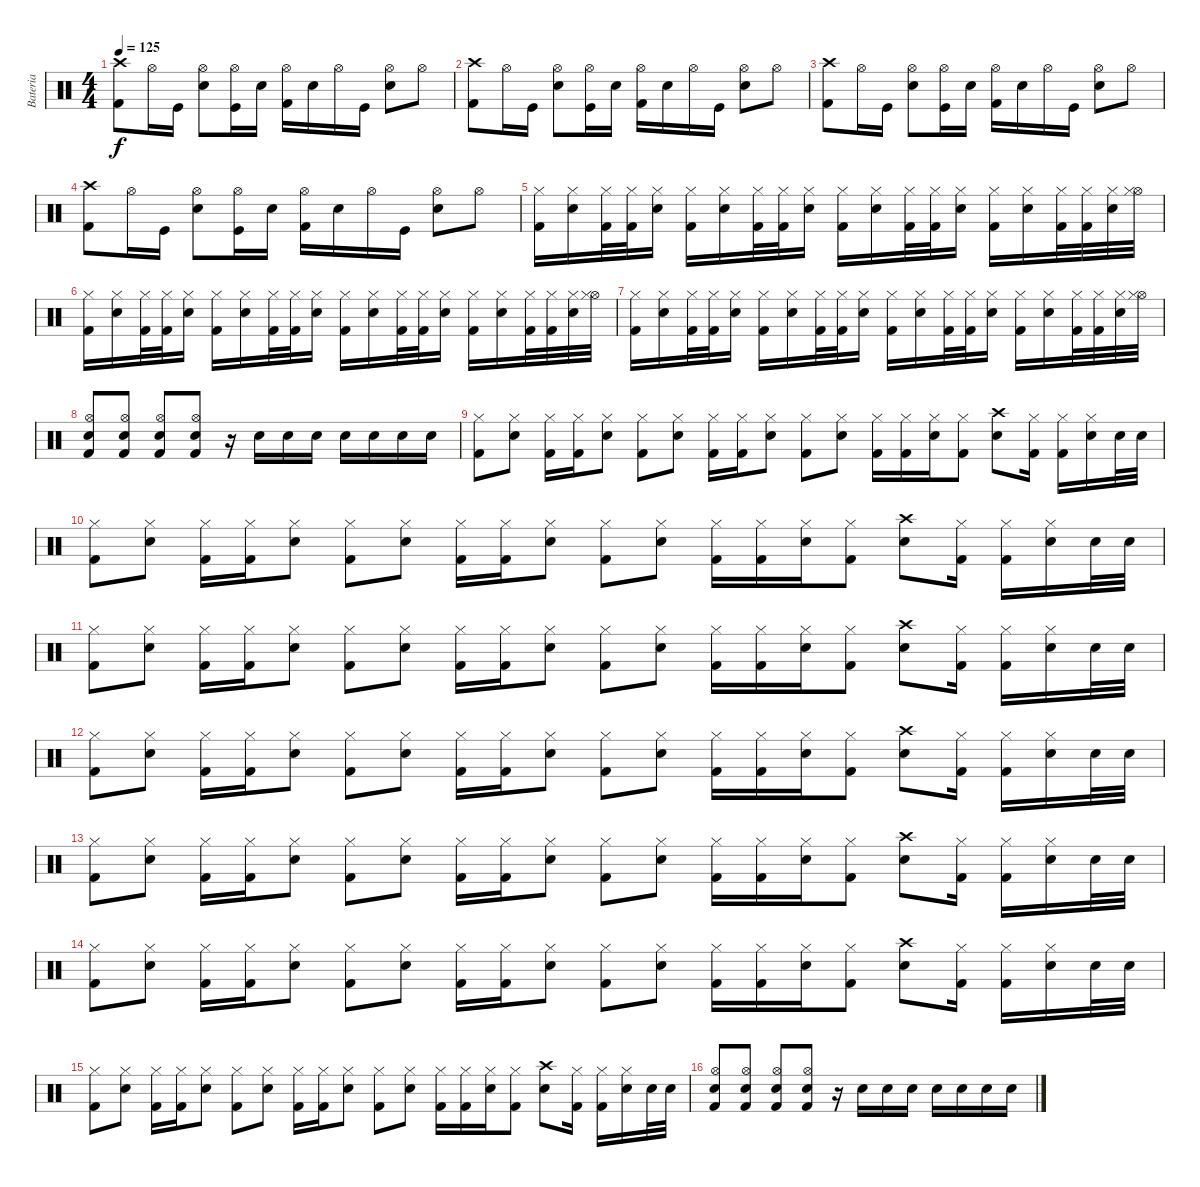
\track ("Bateria" "Bateria") {instrument percussion}
\staff {score}
\articulation defaults
\ts (4 4)
\tempo 125
\clef neutral
\ks c
("Crash high (hit)" "Kick (hit) 2").8{dy f} "Hi-Hat (open)".16 "Kick (hit)".16 ("Hi-Hat (open)" "Electric Snare (hit)").8 ("Hi-Hat (open)" "Kick (hit)").16 "Electric Snare (hit)".16 ("Kick (hit) 2" "Hi-Hat (open)").16 "Electric Snare (hit)".16 "Hi-Hat (open)".16 "Kick (hit)".16 ("Hi-Hat (open)" "Electric Snare (hit)").8 "Hi-Hat (open)".8 |
("Crash high (hit)" "Kick (hit) 2").8 "Hi-Hat (open)".16 "Kick (hit)".16 ("Hi-Hat (open)" "Electric Snare (hit)").8 ("Hi-Hat (open)" "Kick (hit)").16 "Electric Snare (hit)".16 ("Kick (hit) 2" "Hi-Hat (open)").16 "Electric Snare (hit)".16 "Hi-Hat (open)".16 "Kick (hit)".16 ("Hi-Hat (open)" "Electric Snare (hit)").8 "Hi-Hat (open)".8 |
("Crash high (hit)" "Kick (hit) 2").8 "Hi-Hat (open)".16 "Kick (hit)".16 ("Hi-Hat (open)" "Electric Snare (hit)").8 ("Hi-Hat (open)" "Kick (hit)").16 "Electric Snare (hit)".16 ("Kick (hit) 2" "Hi-Hat (open)").16 "Electric Snare (hit)".16 "Hi-Hat (open)".16 "Kick (hit)".16 ("Hi-Hat (open)" "Electric Snare (hit)").8 "Hi-Hat (open)".8 |
("Crash high (hit)" "Kick (hit) 2").8 "Hi-Hat (open)".16 "Kick (hit)".16 ("Hi-Hat (open)" "Electric Snare (hit)").8 ("Hi-Hat (open)" "Kick (hit)").16 "Electric Snare (hit)".16 ("Kick (hit) 2" "Hi-Hat (open)").16 "Electric Snare (hit)".16 "Hi-Hat (open)".16 "Kick (hit)".16 ("Hi-Hat (open)" "Electric Snare (hit)").8 "Hi-Hat (open)".8 |
("Kick (hit) 2" "Hi-Hat (closed)").16 ("Snare (hit) 2" "Hi-Hat (closed)").16 ("Kick (hit) 2" "Hi-Hat (closed)").32 ("Kick (hit) 2" "Hi-Hat (closed)").32 ("Snare (hit) 2" "Hi-Hat (closed)").16 ("Kick (hit) 2" "Hi-Hat (closed)").16 ("Snare (hit) 2" "Hi-Hat (closed)").16 ("Kick (hit) 2" "Hi-Hat (closed)").32 ("Kick (hit) 2" "Hi-Hat (closed)").32 ("Snare (hit) 2" "Hi-Hat (closed)").16 ("Kick (hit) 2" "Hi-Hat (closed)").16 ("Snare (hit) 2" "Hi-Hat (closed)").16 ("Kick (hit) 2" "Hi-Hat (closed)").32 ("Kick (hit) 2" "Hi-Hat (closed)").32 ("Snare (hit) 2" "Hi-Hat (closed)").16 ("Kick (hit) 2" "Hi-Hat (closed)").16 ("Snare (hit) 2" "Hi-Hat (closed)").16 ("Kick (hit) 2" "Hi-Hat (closed)").32 ("Kick (hit) 2" "Hi-Hat (closed)").32 ("Snare (hit) 2" "Hi-Hat (closed)").32 ("Hi-Hat (open)" "Hi-Hat (closed)").32 |
("Kick (hit) 2" "Hi-Hat (closed)").16 ("Snare (hit) 2" "Hi-Hat (closed)").16 ("Kick (hit) 2" "Hi-Hat (closed)").32 ("Kick (hit) 2" "Hi-Hat (closed)").32 ("Snare (hit) 2" "Hi-Hat (closed)").16 ("Kick (hit) 2" "Hi-Hat (closed)").16 ("Snare (hit) 2" "Hi-Hat (closed)").16 ("Kick (hit) 2" "Hi-Hat (closed)").32 ("Kick (hit) 2" "Hi-Hat (closed)").32 ("Snare (hit) 2" "Hi-Hat (closed)").16 ("Kick (hit) 2" "Hi-Hat (closed)").16 ("Snare (hit) 2" "Hi-Hat (closed)").16 ("Kick (hit) 2" "Hi-Hat (closed)").32 ("Kick (hit) 2" "Hi-Hat (closed)").32 ("Snare (hit) 2" "Hi-Hat (closed)").16 ("Kick (hit) 2" "Hi-Hat (closed)").16 ("Snare (hit) 2" "Hi-Hat (closed)").16 ("Kick (hit) 2" "Hi-Hat (closed)").32 ("Kick (hit) 2" "Hi-Hat (closed)").32 ("Snare (hit) 2" "Hi-Hat (closed)").32 ("Hi-Hat (open)" "Hi-Hat (closed)").32 |
("Kick (hit) 2" "Hi-Hat (closed)").16 ("Snare (hit) 2" "Hi-Hat (closed)").16 ("Kick (hit) 2" "Hi-Hat (closed)").32 ("Kick (hit) 2" "Hi-Hat (closed)").32 ("Snare (hit) 2" "Hi-Hat (closed)").16 ("Kick (hit) 2" "Hi-Hat (closed)").16 ("Snare (hit) 2" "Hi-Hat (closed)").16 ("Kick (hit) 2" "Hi-Hat (closed)").32 ("Kick (hit) 2" "Hi-Hat (closed)").32 ("Snare (hit) 2" "Hi-Hat (closed)").16 ("Kick (hit) 2" "Hi-Hat (closed)").16 ("Snare (hit) 2" "Hi-Hat (closed)").16 ("Kick (hit) 2" "Hi-Hat (closed)").32 ("Kick (hit) 2" "Hi-Hat (closed)").32 ("Snare (hit) 2" "Hi-Hat (closed)").16 ("Kick (hit) 2" "Hi-Hat (closed)").16 ("Snare (hit) 2" "Hi-Hat (closed)").16 ("Kick (hit) 2" "Hi-Hat (closed)").32 ("Kick (hit) 2" "Hi-Hat (closed)").32 ("Snare (hit) 2" "Hi-Hat (closed)").32 ("Hi-Hat (open)" "Hi-Hat (closed)").32 |
("Kick (hit) 2" "Snare (hit) 2" "Hi-Hat (open)").8 ("Kick (hit) 2" "Snare (hit) 2" "Hi-Hat (open)").8 ("Kick (hit) 2" "Snare (hit) 2" "Hi-Hat (open)").8 ("Kick (hit) 2" "Snare (hit) 2" "Hi-Hat (open)").8 r.16 "Snare (hit) 2".16 "Snare (hit) 2".16 "Snare (hit) 2".16 "Snare (hit) 2".16 "Snare (hit) 2".16 "Snare (hit) 2".16 "Snare (hit) 2".16 |
("Kick (hit) 2" "Hi-Hat (closed)").8 ("Snare (hit) 2" "Hi-Hat (closed)").8 ("Kick (hit) 2" "Hi-Hat (closed)").16 ("Kick (hit) 2" "Hi-Hat (closed)").16 ("Snare (hit) 2" "Hi-Hat (closed)").8 ("Kick (hit) 2" "Hi-Hat (closed)").8 ("Snare (hit) 2" "Hi-Hat (closed)").8 ("Kick (hit) 2" "Hi-Hat (closed)").16 ("Kick (hit) 2" "Hi-Hat (closed)").16 ("Snare (hit) 2" "Hi-Hat (closed)").8 ("Kick (hit) 2" "Hi-Hat (closed)").8 ("Snare (hit) 2" "Hi-Hat (closed)").8 ("Kick (hit) 2" "Hi-Hat (closed)").16 ("Kick (hit) 2" "Hi-Hat (closed)").16 ("Snare (hit) 2" "Hi-Hat (closed)").16 ("Kick (hit) 2" "Hi-Hat (closed)").8 ("Snare (hit) 2" "Crash high (hit)").8 ("Kick (hit) 2" "Hi-Hat (closed)").16 ("Kick (hit) 2" "Hi-Hat (closed)").16 ("Snare (hit) 2" "Hi-Hat (closed)").16 "Snare (hit) 2".32 "Snare (hit) 2".32 |
("Kick (hit) 2" "Hi-Hat (closed)").8 ("Snare (hit) 2" "Hi-Hat (closed)").8 ("Kick (hit) 2" "Hi-Hat (closed)").16 ("Kick (hit) 2" "Hi-Hat (closed)").16 ("Snare (hit) 2" "Hi-Hat (closed)").8 ("Kick (hit) 2" "Hi-Hat (closed)").8 ("Snare (hit) 2" "Hi-Hat (closed)").8 ("Kick (hit) 2" "Hi-Hat (closed)").16 ("Kick (hit) 2" "Hi-Hat (closed)").16 ("Snare (hit) 2" "Hi-Hat (closed)").8 ("Kick (hit) 2" "Hi-Hat (closed)").8 ("Snare (hit) 2" "Hi-Hat (closed)").8 ("Kick (hit) 2" "Hi-Hat (closed)").16 ("Kick (hit) 2" "Hi-Hat (closed)").16 ("Snare (hit) 2" "Hi-Hat (closed)").16 ("Kick (hit) 2" "Hi-Hat (closed)").8 ("Snare (hit) 2" "Crash high (hit)").8 ("Kick (hit) 2" "Hi-Hat (closed)").16 ("Kick (hit) 2" "Hi-Hat (closed)").16 ("Snare (hit) 2" "Hi-Hat (closed)").16 "Snare (hit) 2".32 "Snare (hit) 2".32 |
("Kick (hit) 2" "Hi-Hat (closed)").8 ("Snare (hit) 2" "Hi-Hat (closed)").8 ("Kick (hit) 2" "Hi-Hat (closed)").16 ("Kick (hit) 2" "Hi-Hat (closed)").16 ("Snare (hit) 2" "Hi-Hat (closed)").8 ("Kick (hit) 2" "Hi-Hat (closed)").8 ("Snare (hit) 2" "Hi-Hat (closed)").8 ("Kick (hit) 2" "Hi-Hat (closed)").16 ("Kick (hit) 2" "Hi-Hat (closed)").16 ("Snare (hit) 2" "Hi-Hat (closed)").8 ("Kick (hit) 2" "Hi-Hat (closed)").8 ("Snare (hit) 2" "Hi-Hat (closed)").8 ("Kick (hit) 2" "Hi-Hat (closed)").16 ("Kick (hit) 2" "Hi-Hat (closed)").16 ("Snare (hit) 2" "Hi-Hat (closed)").16 ("Kick (hit) 2" "Hi-Hat (closed)").8 ("Snare (hit) 2" "Crash high (hit)").8 ("Kick (hit) 2" "Hi-Hat (closed)").16 ("Kick (hit) 2" "Hi-Hat (closed)").16 ("Snare (hit) 2" "Hi-Hat (closed)").16 "Snare (hit) 2".32 "Snare (hit) 2".32 |
("Kick (hit) 2" "Hi-Hat (closed)").8 ("Snare (hit) 2" "Hi-Hat (closed)").8 ("Kick (hit) 2" "Hi-Hat (closed)").16 ("Kick (hit) 2" "Hi-Hat (closed)").16 ("Snare (hit) 2" "Hi-Hat (closed)").8 ("Kick (hit) 2" "Hi-Hat (closed)").8 ("Snare (hit) 2" "Hi-Hat (closed)").8 ("Kick (hit) 2" "Hi-Hat (closed)").16 ("Kick (hit) 2" "Hi-Hat (closed)").16 ("Snare (hit) 2" "Hi-Hat (closed)").8 ("Kick (hit) 2" "Hi-Hat (closed)").8 ("Snare (hit) 2" "Hi-Hat (closed)").8 ("Kick (hit) 2" "Hi-Hat (closed)").16 ("Kick (hit) 2" "Hi-Hat (closed)").16 ("Snare (hit) 2" "Hi-Hat (closed)").16 ("Kick (hit) 2" "Hi-Hat (closed)").8 ("Snare (hit) 2" "Crash high (hit)").8 ("Kick (hit) 2" "Hi-Hat (closed)").16 ("Kick (hit) 2" "Hi-Hat (closed)").16 ("Snare (hit) 2" "Hi-Hat (closed)").16 "Snare (hit) 2".32 "Snare (hit) 2".32 |
("Kick (hit) 2" "Hi-Hat (closed)").8 ("Snare (hit) 2" "Hi-Hat (closed)").8 ("Kick (hit) 2" "Hi-Hat (closed)").16 ("Kick (hit) 2" "Hi-Hat (closed)").16 ("Snare (hit) 2" "Hi-Hat (closed)").8 ("Kick (hit) 2" "Hi-Hat (closed)").8 ("Snare (hit) 2" "Hi-Hat (closed)").8 ("Kick (hit) 2" "Hi-Hat (closed)").16 ("Kick (hit) 2" "Hi-Hat (closed)").16 ("Snare (hit) 2" "Hi-Hat (closed)").8 ("Kick (hit) 2" "Hi-Hat (closed)").8 ("Snare (hit) 2" "Hi-Hat (closed)").8 ("Kick (hit) 2" "Hi-Hat (closed)").16 ("Kick (hit) 2" "Hi-Hat (closed)").16 ("Snare (hit) 2" "Hi-Hat (closed)").16 ("Kick (hit) 2" "Hi-Hat (closed)").8 ("Snare (hit) 2" "Crash high (hit)").8 ("Kick (hit) 2" "Hi-Hat (closed)").16 ("Kick (hit) 2" "Hi-Hat (closed)").16 ("Snare (hit) 2" "Hi-Hat (closed)").16 "Snare (hit) 2".32 "Snare (hit) 2".32 |
("Kick (hit) 2" "Hi-Hat (closed)").8 ("Snare (hit) 2" "Hi-Hat (closed)").8 ("Kick (hit) 2" "Hi-Hat (closed)").16 ("Kick (hit) 2" "Hi-Hat (closed)").16 ("Snare (hit) 2" "Hi-Hat (closed)").8 ("Kick (hit) 2" "Hi-Hat (closed)").8 ("Snare (hit) 2" "Hi-Hat (closed)").8 ("Kick (hit) 2" "Hi-Hat (closed)").16 ("Kick (hit) 2" "Hi-Hat (closed)").16 ("Snare (hit) 2" "Hi-Hat (closed)").8 ("Kick (hit) 2" "Hi-Hat (closed)").8 ("Snare (hit) 2" "Hi-Hat (closed)").8 ("Kick (hit) 2" "Hi-Hat (closed)").16 ("Kick (hit) 2" "Hi-Hat (closed)").16 ("Snare (hit) 2" "Hi-Hat (closed)").16 ("Kick (hit) 2" "Hi-Hat (closed)").8 ("Snare (hit) 2" "Crash high (hit)").8 ("Kick (hit) 2" "Hi-Hat (closed)").16 ("Kick (hit) 2" "Hi-Hat (closed)").16 ("Snare (hit) 2" "Hi-Hat (closed)").16 "Snare (hit) 2".32 "Snare (hit) 2".32 |
("Kick (hit) 2" "Hi-Hat (closed)").8 ("Snare (hit) 2" "Hi-Hat (closed)").8 ("Kick (hit) 2" "Hi-Hat (closed)").16 ("Kick (hit) 2" "Hi-Hat (closed)").16 ("Snare (hit) 2" "Hi-Hat (closed)").8 ("Kick (hit) 2" "Hi-Hat (closed)").8 ("Snare (hit) 2" "Hi-Hat (closed)").8 ("Kick (hit) 2" "Hi-Hat (closed)").16 ("Kick (hit) 2" "Hi-Hat (closed)").16 ("Snare (hit) 2" "Hi-Hat (closed)").8 ("Kick (hit) 2" "Hi-Hat (closed)").8 ("Snare (hit) 2" "Hi-Hat (closed)").8 ("Kick (hit) 2" "Hi-Hat (closed)").16 ("Kick (hit) 2" "Hi-Hat (closed)").16 ("Snare (hit) 2" "Hi-Hat (closed)").16 ("Kick (hit) 2" "Hi-Hat (closed)").8 ("Snare (hit) 2" "Crash high (hit)").8 ("Kick (hit) 2" "Hi-Hat (closed)").16 ("Kick (hit) 2" "Hi-Hat (closed)").16 ("Snare (hit) 2" "Hi-Hat (closed)").16 "Snare (hit) 2".32 "Snare (hit) 2".32 |
("Kick (hit) 2" "Snare (hit) 2" "Hi-Hat (open)").8 ("Kick (hit) 2" "Snare (hit) 2" "Hi-Hat (open)").8 ("Kick (hit) 2" "Snare (hit) 2" "Hi-Hat (open)").8 ("Kick (hit) 2" "Snare (hit) 2" "Hi-Hat (open)").8 r.16 "Snare (hit) 2".16 "Snare (hit) 2".16 "Snare (hit) 2".16 "Snare (hit) 2".16 "Snare (hit) 2".16 "Snare (hit) 2".16 "Snare (hit) 2".16
